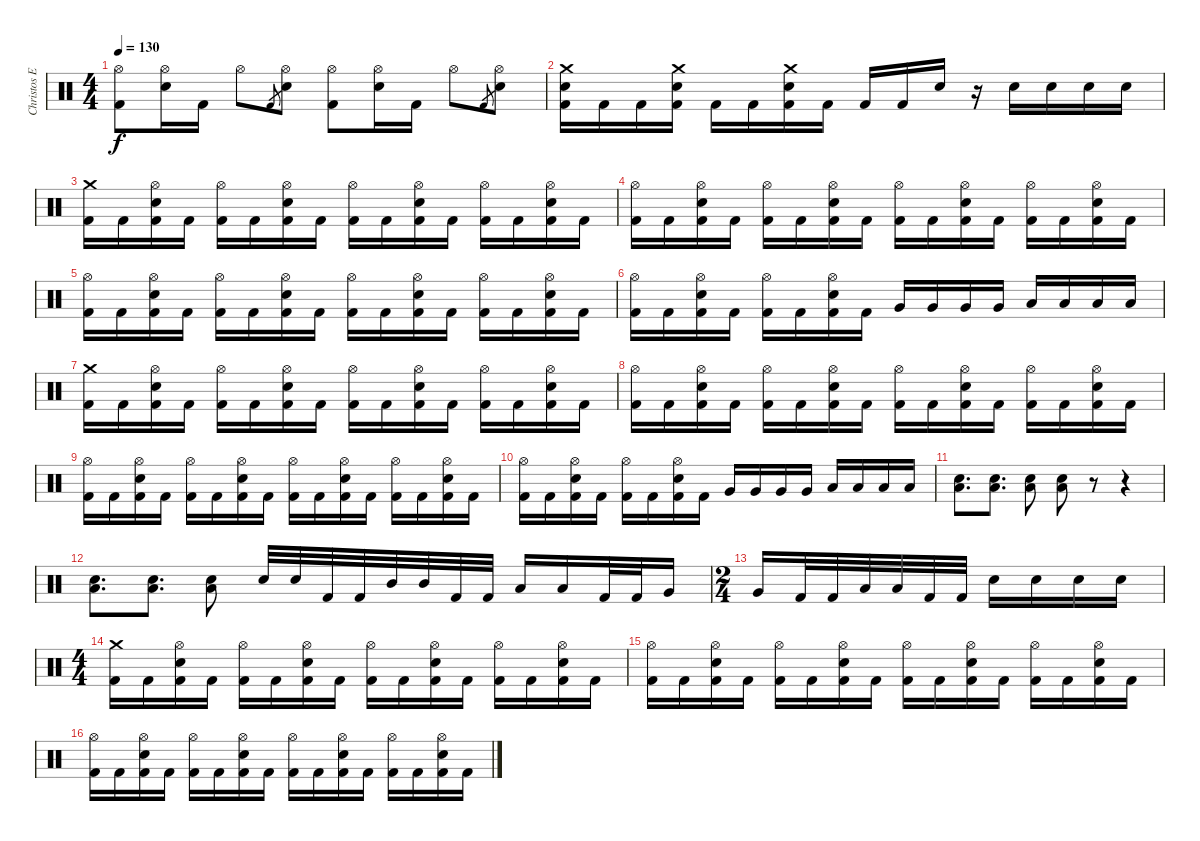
\track ("Christos Efthimiadis" "Christos E") {instrument percussion}
\staff {score}
\articulation defaults
\ts (4 4)
\tempo 130
\clef neutral
\ks c
("Hi-Hat (open)" "Kick (hit) 2").8{dy f} ("Hi-Hat (open)" "Snare (hit) 2").16 "Kick (hit) 2".16 "Hi-Hat (open)".8 "Kick (hit) 2".8{gr} ("Hi-Hat (open)" "Snare (hit) 2").8 ("Hi-Hat (open)" "Kick (hit) 2").8 ("Hi-Hat (open)" "Snare (hit) 2").16 "Kick (hit) 2".16 "Hi-Hat (open)".8 "Kick (hit) 2".8{gr} ("Hi-Hat (open)" "Snare (hit) 2").8 |
("Crash medium (hit)" "Snare (hit) 2" "Kick (hit) 2").16 "Kick (hit) 2".16 "Kick (hit) 2".16 ("Crash medium (hit)" "Snare (hit) 2" "Kick (hit) 2").16 "Kick (hit) 2".16 "Kick (hit) 2".16 ("Crash medium (hit)" "Snare (hit) 2" "Kick (hit) 2").16 "Kick (hit) 2".16 "Kick (hit) 2".16 "Kick (hit) 2".16 "Snare (hit) 2".16 r.16 "Snare (hit) 2".16 "Snare (hit) 2".16 "Snare (hit) 2".16 "Snare (hit) 2".16 |
("Crash medium (hit)" "Kick (hit) 2").16 "Kick (hit) 2".16 ("Snare (hit) 2" "Hi-Hat (open)" "Kick (hit) 2").16 "Kick (hit) 2".16 ("Hi-Hat (open)" "Kick (hit) 2").16 "Kick (hit) 2".16 ("Snare (hit) 2" "Hi-Hat (open)" "Kick (hit) 2").16 "Kick (hit) 2".16 ("Hi-Hat (open)" "Kick (hit) 2").16 "Kick (hit) 2".16 ("Snare (hit) 2" "Hi-Hat (open)" "Kick (hit) 2").16 "Kick (hit) 2".16 ("Hi-Hat (open)" "Kick (hit) 2").16 "Kick (hit) 2".16 ("Snare (hit) 2" "Hi-Hat (open)" "Kick (hit) 2").16 "Kick (hit) 2".16 |
("Hi-Hat (open)" "Kick (hit) 2").16 "Kick (hit) 2".16 ("Snare (hit) 2" "Hi-Hat (open)" "Kick (hit) 2").16 "Kick (hit) 2".16 ("Hi-Hat (open)" "Kick (hit) 2").16 "Kick (hit) 2".16 ("Snare (hit) 2" "Hi-Hat (open)" "Kick (hit) 2").16 "Kick (hit) 2".16 ("Hi-Hat (open)" "Kick (hit) 2").16 "Kick (hit) 2".16 ("Snare (hit) 2" "Hi-Hat (open)" "Kick (hit) 2").16 "Kick (hit) 2".16 ("Hi-Hat (open)" "Kick (hit) 2").16 "Kick (hit) 2".16 ("Snare (hit) 2" "Hi-Hat (open)" "Kick (hit) 2").16 "Kick (hit) 2".16 |
("Hi-Hat (open)" "Kick (hit) 2").16 "Kick (hit) 2".16 ("Snare (hit) 2" "Hi-Hat (open)" "Kick (hit) 2").16 "Kick (hit) 2".16 ("Hi-Hat (open)" "Kick (hit) 2").16 "Kick (hit) 2".16 ("Snare (hit) 2" "Hi-Hat (open)" "Kick (hit) 2").16 "Kick (hit) 2".16 ("Hi-Hat (open)" "Kick (hit) 2").16 "Kick (hit) 2".16 ("Snare (hit) 2" "Hi-Hat (open)" "Kick (hit) 2").16 "Kick (hit) 2".16 ("Hi-Hat (open)" "Kick (hit) 2").16 "Kick (hit) 2".16 ("Snare (hit) 2" "Hi-Hat (open)" "Kick (hit) 2").16 "Kick (hit) 2".16 |
("Hi-Hat (open)" "Kick (hit) 2").16 "Kick (hit) 2".16 ("Snare (hit) 2" "Hi-Hat (open)" "Kick (hit) 2").16 "Kick (hit) 2".16 ("Hi-Hat (open)" "Kick (hit) 2").16 "Kick (hit) 2".16 ("Snare (hit) 2" "Hi-Hat (open)" "Kick (hit) 2").16 "Kick (hit) 2".16 "Very Low Tom (hit)".16 "Very Low Tom (hit)".16 "Very Low Tom (hit)".16 "Very Low Tom (hit)".16 "Low Floor Tom (hit)".16 "Low Floor Tom (hit)".16 "Low Floor Tom (hit)".16 "Low Floor Tom (hit)".16 |
("Crash medium (hit)" "Kick (hit) 2").16 "Kick (hit) 2".16 ("Snare (hit) 2" "Hi-Hat (open)" "Kick (hit) 2").16 "Kick (hit) 2".16 ("Hi-Hat (open)" "Kick (hit) 2").16 "Kick (hit) 2".16 ("Snare (hit) 2" "Hi-Hat (open)" "Kick (hit) 2").16 "Kick (hit) 2".16 ("Hi-Hat (open)" "Kick (hit) 2").16 "Kick (hit) 2".16 ("Snare (hit) 2" "Hi-Hat (open)" "Kick (hit) 2").16 "Kick (hit) 2".16 ("Hi-Hat (open)" "Kick (hit) 2").16 "Kick (hit) 2".16 ("Snare (hit) 2" "Hi-Hat (open)" "Kick (hit) 2").16 "Kick (hit) 2".16 |
("Hi-Hat (open)" "Kick (hit) 2").16 "Kick (hit) 2".16 ("Snare (hit) 2" "Hi-Hat (open)" "Kick (hit) 2").16 "Kick (hit) 2".16 ("Hi-Hat (open)" "Kick (hit) 2").16 "Kick (hit) 2".16 ("Snare (hit) 2" "Hi-Hat (open)" "Kick (hit) 2").16 "Kick (hit) 2".16 ("Hi-Hat (open)" "Kick (hit) 2").16 "Kick (hit) 2".16 ("Snare (hit) 2" "Hi-Hat (open)" "Kick (hit) 2").16 "Kick (hit) 2".16 ("Hi-Hat (open)" "Kick (hit) 2").16 "Kick (hit) 2".16 ("Snare (hit) 2" "Hi-Hat (open)" "Kick (hit) 2").16 "Kick (hit) 2".16 |
("Hi-Hat (open)" "Kick (hit) 2").16 "Kick (hit) 2".16 ("Snare (hit) 2" "Hi-Hat (open)" "Kick (hit) 2").16 "Kick (hit) 2".16 ("Hi-Hat (open)" "Kick (hit) 2").16 "Kick (hit) 2".16 ("Snare (hit) 2" "Hi-Hat (open)" "Kick (hit) 2").16 "Kick (hit) 2".16 ("Hi-Hat (open)" "Kick (hit) 2").16 "Kick (hit) 2".16 ("Snare (hit) 2" "Hi-Hat (open)" "Kick (hit) 2").16 "Kick (hit) 2".16 ("Hi-Hat (open)" "Kick (hit) 2").16 "Kick (hit) 2".16 ("Snare (hit) 2" "Hi-Hat (open)" "Kick (hit) 2").16 "Kick (hit) 2".16 |
("Hi-Hat (open)" "Kick (hit) 2").16 "Kick (hit) 2".16 ("Snare (hit) 2" "Hi-Hat (open)" "Kick (hit) 2").16 "Kick (hit) 2".16 ("Hi-Hat (open)" "Kick (hit) 2").16 "Kick (hit) 2".16 ("Snare (hit) 2" "Hi-Hat (open)" "Kick (hit) 2").16 "Kick (hit) 2".16 "Very Low Tom (hit)".16 "Very Low Tom (hit)".16 "Very Low Tom (hit)".16 "Very Low Tom (hit)".16 "Low Floor Tom (hit)".16 "Low Floor Tom (hit)".16 "Low Floor Tom (hit)".16 "Low Floor Tom (hit)".16 |
("Snare (hit) 2" "Low Floor Tom (hit)").8{d} ("Snare (hit) 2" "Low Floor Tom (hit)").8{d} ("Snare (hit) 2" "Low Floor Tom (hit)").8 ("Snare (hit) 2" "Low Floor Tom (hit)").8 r.8 r.4 |
("Snare (hit) 2" "Low Floor Tom (hit)").8{d} ("Snare (hit) 2" "Low Floor Tom (hit)").8{d} ("Snare (hit) 2" "Low Floor Tom (hit)").8 "Snare (hit) 2".32 "Snare (hit) 2".32 "Kick (hit) 2".32 "Kick (hit) 2".32 "Mid Tom (hit)".32 "Mid Tom (hit)".32 "Kick (hit) 2".32 "Kick (hit) 2".32 "Low Tom (hit)".16 "Low Tom (hit)".16 "Kick (hit) 2".32 "Kick (hit) 2".32 "Very Low Tom (hit)".16 |
\ts (2 4)
"Very Low Tom (hit)".16 "Kick (hit) 2".32 "Kick (hit) 2".32 "Low Floor Tom (hit)".32 "Low Floor Tom (hit)".32 "Kick (hit) 2".32 "Kick (hit) 2".32 "Snare (hit) 2".16 "Snare (hit) 2".16 "Snare (hit) 2".16 "Snare (hit) 2".16 |
\ts (4 4)
("Crash medium (hit)" "Kick (hit) 2").16 "Kick (hit) 2".16 ("Snare (hit) 2" "Hi-Hat (open)" "Kick (hit) 2").16 "Kick (hit) 2".16 ("Hi-Hat (open)" "Kick (hit) 2").16 "Kick (hit) 2".16 ("Snare (hit) 2" "Hi-Hat (open)" "Kick (hit) 2").16 "Kick (hit) 2".16 ("Hi-Hat (open)" "Kick (hit) 2").16 "Kick (hit) 2".16 ("Snare (hit) 2" "Hi-Hat (open)" "Kick (hit) 2").16 "Kick (hit) 2".16 ("Hi-Hat (open)" "Kick (hit) 2").16 "Kick (hit) 2".16 ("Snare (hit) 2" "Hi-Hat (open)" "Kick (hit) 2").16 "Kick (hit) 2".16 |
("Hi-Hat (open)" "Kick (hit) 2").16 "Kick (hit) 2".16 ("Snare (hit) 2" "Hi-Hat (open)" "Kick (hit) 2").16 "Kick (hit) 2".16 ("Hi-Hat (open)" "Kick (hit) 2").16 "Kick (hit) 2".16 ("Snare (hit) 2" "Hi-Hat (open)" "Kick (hit) 2").16 "Kick (hit) 2".16 ("Hi-Hat (open)" "Kick (hit) 2").16 "Kick (hit) 2".16 ("Snare (hit) 2" "Hi-Hat (open)" "Kick (hit) 2").16 "Kick (hit) 2".16 ("Hi-Hat (open)" "Kick (hit) 2").16 "Kick (hit) 2".16 ("Snare (hit) 2" "Hi-Hat (open)" "Kick (hit) 2").16 "Kick (hit) 2".16 |
("Hi-Hat (open)" "Kick (hit) 2").16 "Kick (hit) 2".16 ("Snare (hit) 2" "Hi-Hat (open)" "Kick (hit) 2").16 "Kick (hit) 2".16 ("Hi-Hat (open)" "Kick (hit) 2").16 "Kick (hit) 2".16 ("Snare (hit) 2" "Hi-Hat (open)" "Kick (hit) 2").16 "Kick (hit) 2".16 ("Hi-Hat (open)" "Kick (hit) 2").16 "Kick (hit) 2".16 ("Snare (hit) 2" "Hi-Hat (open)" "Kick (hit) 2").16 "Kick (hit) 2".16 ("Hi-Hat (open)" "Kick (hit) 2").16 "Kick (hit) 2".16 ("Snare (hit) 2" "Hi-Hat (open)" "Kick (hit) 2").16 "Kick (hit) 2".16
